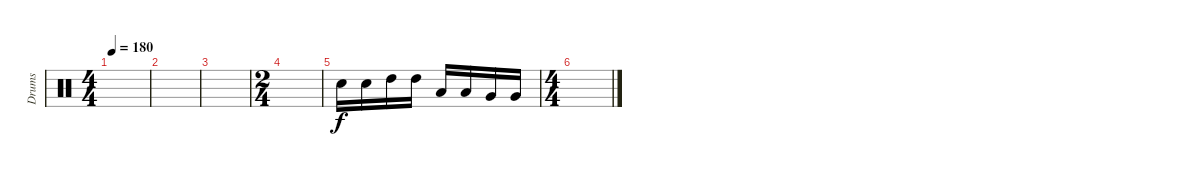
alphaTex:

\track ("Drums" "Drums") {instrument percussion}
\staff {score}
\articulation defaults
\ts (4 4)
\tempo 180
\clef neutral
\ks c
|
|
|
\ts (2 4)
|
"Electric Snare (hit)".16 "Electric Snare (hit)".16 "High Tom (hit)".16 "High Tom (hit)".16 "Low Tom (hit)".16 "Low Tom (hit)".16 "Very Low Tom (hit)".16 "Very Low Tom (hit)".16 |
\ts (4 4)
